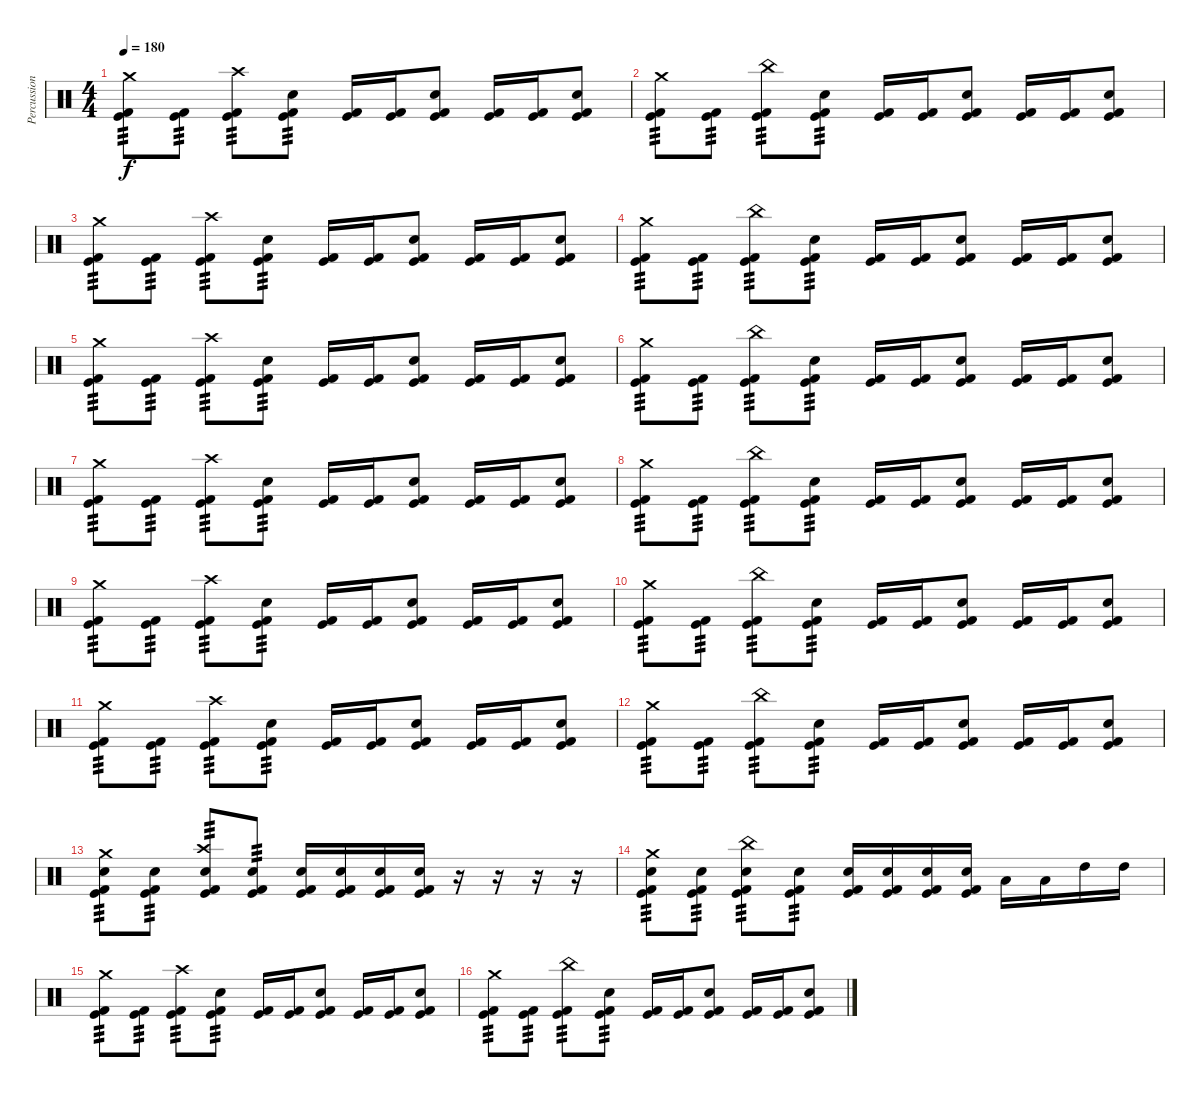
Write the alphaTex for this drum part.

\track ("Percussion" "Percussion") {instrument percussion}
\staff {score}
\articulation defaults
\ts (4 4)
\tempo 180
\clef neutral
\ks c
("Crash medium (hit)" "Kick (hit)" "Kick (hit) 2").8{tp 3 dy f} ("Kick (hit)" "Kick (hit) 2").8{tp 3} ("Crash high (hit)" "Kick (hit)" "Kick (hit) 2").8{tp 3} ("Electric Snare (hit)" "Kick (hit)" "Kick (hit) 2").8{tp 3} ("Kick (hit)" "Kick (hit) 2").16 ("Kick (hit)" "Kick (hit) 2").16 ("Electric Snare (hit)" "Kick (hit)" "Kick (hit) 2").8 ("Kick (hit)" "Kick (hit) 2").16 ("Kick (hit)" "Kick (hit) 2").16 ("Electric Snare (hit)" "Kick (hit)" "Kick (hit) 2").8 |
("Crash medium (hit)" "Kick (hit)" "Kick (hit) 2").8{tp 3} ("Kick (hit)" "Kick (hit) 2").8{tp 3} ("China (hit)" "Kick (hit)" "Kick (hit) 2").8{tp 3} ("Electric Snare (hit)" "Kick (hit)" "Kick (hit) 2").8{tp 3} ("Kick (hit)" "Kick (hit) 2").16 ("Kick (hit)" "Kick (hit) 2").16 ("Electric Snare (hit)" "Kick (hit)" "Kick (hit) 2").8 ("Kick (hit)" "Kick (hit) 2").16 ("Kick (hit)" "Kick (hit) 2").16 ("Electric Snare (hit)" "Kick (hit)" "Kick (hit) 2").8 |
("Crash medium (hit)" "Kick (hit)" "Kick (hit) 2").8{tp 3} ("Kick (hit)" "Kick (hit) 2").8{tp 3} ("Crash high (hit)" "Kick (hit)" "Kick (hit) 2").8{tp 3} ("Electric Snare (hit)" "Kick (hit)" "Kick (hit) 2").8{tp 3} ("Kick (hit)" "Kick (hit) 2").16 ("Kick (hit)" "Kick (hit) 2").16 ("Electric Snare (hit)" "Kick (hit)" "Kick (hit) 2").8 ("Kick (hit)" "Kick (hit) 2").16 ("Kick (hit)" "Kick (hit) 2").16 ("Electric Snare (hit)" "Kick (hit)" "Kick (hit) 2").8 |
("Crash medium (hit)" "Kick (hit)" "Kick (hit) 2").8{tp 3} ("Kick (hit)" "Kick (hit) 2").8{tp 3} ("China (hit)" "Kick (hit)" "Kick (hit) 2").8{tp 3} ("Electric Snare (hit)" "Kick (hit)" "Kick (hit) 2").8{tp 3} ("Kick (hit)" "Kick (hit) 2").16 ("Kick (hit)" "Kick (hit) 2").16 ("Electric Snare (hit)" "Kick (hit)" "Kick (hit) 2").8 ("Kick (hit)" "Kick (hit) 2").16 ("Kick (hit)" "Kick (hit) 2").16 ("Electric Snare (hit)" "Kick (hit)" "Kick (hit) 2").8 |
("Crash medium (hit)" "Kick (hit)" "Kick (hit) 2").8{tp 3} ("Kick (hit)" "Kick (hit) 2").8{tp 3} ("Crash high (hit)" "Kick (hit)" "Kick (hit) 2").8{tp 3} ("Electric Snare (hit)" "Kick (hit)" "Kick (hit) 2").8{tp 3} ("Kick (hit)" "Kick (hit) 2").16 ("Kick (hit)" "Kick (hit) 2").16 ("Electric Snare (hit)" "Kick (hit)" "Kick (hit) 2").8 ("Kick (hit)" "Kick (hit) 2").16 ("Kick (hit)" "Kick (hit) 2").16 ("Electric Snare (hit)" "Kick (hit)" "Kick (hit) 2").8 |
("Crash medium (hit)" "Kick (hit)" "Kick (hit) 2").8{tp 3} ("Kick (hit)" "Kick (hit) 2").8{tp 3} ("China (hit)" "Kick (hit)" "Kick (hit) 2").8{tp 3} ("Electric Snare (hit)" "Kick (hit)" "Kick (hit) 2").8{tp 3} ("Kick (hit)" "Kick (hit) 2").16 ("Kick (hit)" "Kick (hit) 2").16 ("Electric Snare (hit)" "Kick (hit)" "Kick (hit) 2").8 ("Kick (hit)" "Kick (hit) 2").16 ("Kick (hit)" "Kick (hit) 2").16 ("Electric Snare (hit)" "Kick (hit)" "Kick (hit) 2").8 |
("Crash medium (hit)" "Kick (hit)" "Kick (hit) 2").8{tp 3} ("Kick (hit)" "Kick (hit) 2").8{tp 3} ("Crash high (hit)" "Kick (hit)" "Kick (hit) 2").8{tp 3} ("Electric Snare (hit)" "Kick (hit)" "Kick (hit) 2").8{tp 3} ("Kick (hit)" "Kick (hit) 2").16 ("Kick (hit)" "Kick (hit) 2").16 ("Electric Snare (hit)" "Kick (hit)" "Kick (hit) 2").8 ("Kick (hit)" "Kick (hit) 2").16 ("Kick (hit)" "Kick (hit) 2").16 ("Electric Snare (hit)" "Kick (hit)" "Kick (hit) 2").8 |
("Crash medium (hit)" "Kick (hit)" "Kick (hit) 2").8{tp 3} ("Kick (hit)" "Kick (hit) 2").8{tp 3} ("China (hit)" "Kick (hit)" "Kick (hit) 2").8{tp 3} ("Electric Snare (hit)" "Kick (hit)" "Kick (hit) 2").8{tp 3} ("Kick (hit)" "Kick (hit) 2").16 ("Kick (hit)" "Kick (hit) 2").16 ("Electric Snare (hit)" "Kick (hit)" "Kick (hit) 2").8 ("Kick (hit)" "Kick (hit) 2").16 ("Kick (hit)" "Kick (hit) 2").16 ("Electric Snare (hit)" "Kick (hit)" "Kick (hit) 2").8 |
("Crash medium (hit)" "Kick (hit)" "Kick (hit) 2").8{tp 3} ("Kick (hit)" "Kick (hit) 2").8{tp 3} ("Crash high (hit)" "Kick (hit)" "Kick (hit) 2").8{tp 3} ("Electric Snare (hit)" "Kick (hit)" "Kick (hit) 2").8{tp 3} ("Kick (hit)" "Kick (hit) 2").16 ("Kick (hit)" "Kick (hit) 2").16 ("Electric Snare (hit)" "Kick (hit)" "Kick (hit) 2").8 ("Kick (hit)" "Kick (hit) 2").16 ("Kick (hit)" "Kick (hit) 2").16 ("Electric Snare (hit)" "Kick (hit)" "Kick (hit) 2").8 |
("Crash medium (hit)" "Kick (hit)" "Kick (hit) 2").8{tp 3} ("Kick (hit)" "Kick (hit) 2").8{tp 3} ("China (hit)" "Kick (hit)" "Kick (hit) 2").8{tp 3} ("Electric Snare (hit)" "Kick (hit)" "Kick (hit) 2").8{tp 3} ("Kick (hit)" "Kick (hit) 2").16 ("Kick (hit)" "Kick (hit) 2").16 ("Electric Snare (hit)" "Kick (hit)" "Kick (hit) 2").8 ("Kick (hit)" "Kick (hit) 2").16 ("Kick (hit)" "Kick (hit) 2").16 ("Electric Snare (hit)" "Kick (hit)" "Kick (hit) 2").8 |
("Crash medium (hit)" "Kick (hit)" "Kick (hit) 2").8{tp 3} ("Kick (hit)" "Kick (hit) 2").8{tp 3} ("Crash high (hit)" "Kick (hit)" "Kick (hit) 2").8{tp 3} ("Electric Snare (hit)" "Kick (hit)" "Kick (hit) 2").8{tp 3} ("Kick (hit)" "Kick (hit) 2").16 ("Kick (hit)" "Kick (hit) 2").16 ("Electric Snare (hit)" "Kick (hit)" "Kick (hit) 2").8 ("Kick (hit)" "Kick (hit) 2").16 ("Kick (hit)" "Kick (hit) 2").16 ("Electric Snare (hit)" "Kick (hit)" "Kick (hit) 2").8 |
("Crash medium (hit)" "Kick (hit)" "Kick (hit) 2").8{tp 3} ("Kick (hit)" "Kick (hit) 2").8{tp 3} ("China (hit)" "Kick (hit)" "Kick (hit) 2").8{tp 3} ("Electric Snare (hit)" "Kick (hit)" "Kick (hit) 2").8{tp 3} ("Kick (hit)" "Kick (hit) 2").16 ("Kick (hit)" "Kick (hit) 2").16 ("Electric Snare (hit)" "Kick (hit)" "Kick (hit) 2").8 ("Kick (hit)" "Kick (hit) 2").16 ("Kick (hit)" "Kick (hit) 2").16 ("Electric Snare (hit)" "Kick (hit)" "Kick (hit) 2").8 |
("Crash medium (hit)" "Electric Snare (hit)" "Kick (hit)" "Kick (hit) 2").8{tp 3} ("Electric Snare (hit)" "Kick (hit)" "Kick (hit) 2").8{tp 3} ("Crash high (hit)" "Electric Snare (hit)" "Kick (hit)" "Kick (hit) 2").8{tp 3} ("Electric Snare (hit)" "Kick (hit)" "Kick (hit) 2").8{tp 3} ("Electric Snare (hit)" "Kick (hit)" "Kick (hit) 2").16 ("Electric Snare (hit)" "Kick (hit)" "Kick (hit) 2").16 ("Electric Snare (hit)" "Kick (hit)" "Kick (hit) 2").16 ("Electric Snare (hit)" "Kick (hit)" "Kick (hit) 2").16 r.16 r.16 r.16 r.16 |
("Crash medium (hit)" "Electric Snare (hit)" "Kick (hit)" "Kick (hit) 2").8{tp 3} ("Electric Snare (hit)" "Kick (hit)" "Kick (hit) 2").8{tp 3} ("China (hit)" "Electric Snare (hit)" "Kick (hit)" "Kick (hit) 2").8{tp 3} ("Electric Snare (hit)" "Kick (hit)" "Kick (hit) 2").8{tp 3} ("Electric Snare (hit)" "Kick (hit)" "Kick (hit) 2").16 ("Electric Snare (hit)" "Kick (hit)" "Kick (hit) 2").16 ("Electric Snare (hit)" "Kick (hit)" "Kick (hit) 2").16 ("Electric Snare (hit)" "Kick (hit)" "Kick (hit) 2").16 "Low Tom (hit)".16 "Low Tom (hit)".16 "High Tom (hit)".16 "High Tom (hit)".16 |
("Crash medium (hit)" "Kick (hit)" "Kick (hit) 2").8{tp 3} ("Kick (hit)" "Kick (hit) 2").8{tp 3} ("Crash high (hit)" "Kick (hit)" "Kick (hit) 2").8{tp 3} ("Electric Snare (hit)" "Kick (hit)" "Kick (hit) 2").8{tp 3} ("Kick (hit)" "Kick (hit) 2").16 ("Kick (hit)" "Kick (hit) 2").16 ("Electric Snare (hit)" "Kick (hit)" "Kick (hit) 2").8 ("Kick (hit)" "Kick (hit) 2").16 ("Kick (hit)" "Kick (hit) 2").16 ("Electric Snare (hit)" "Kick (hit)" "Kick (hit) 2").8 |
("Crash medium (hit)" "Kick (hit)" "Kick (hit) 2").8{tp 3} ("Kick (hit)" "Kick (hit) 2").8{tp 3} ("China (hit)" "Kick (hit)" "Kick (hit) 2").8{tp 3} ("Electric Snare (hit)" "Kick (hit)" "Kick (hit) 2").8{tp 3} ("Kick (hit)" "Kick (hit) 2").16 ("Kick (hit)" "Kick (hit) 2").16 ("Electric Snare (hit)" "Kick (hit)" "Kick (hit) 2").8 ("Kick (hit)" "Kick (hit) 2").16 ("Kick (hit)" "Kick (hit) 2").16 ("Electric Snare (hit)" "Kick (hit)" "Kick (hit) 2").8
